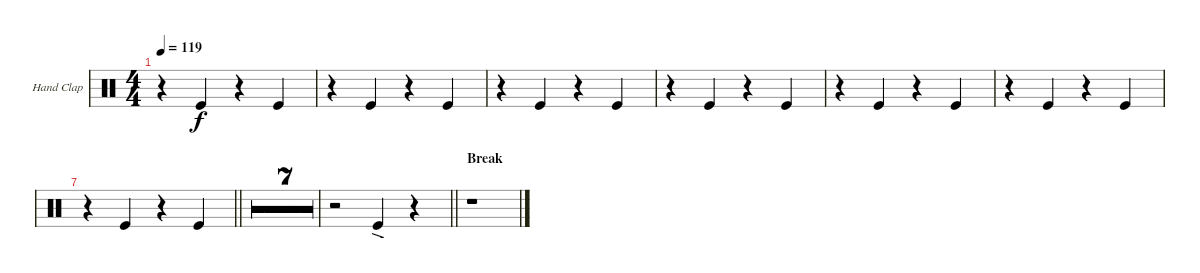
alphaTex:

\defaultSystemsLayout 4
\bracketExtendMode groupsimilarinstruments
\useSystemSignSeparator
\multiBarRest
\multiTrackTrackNamePolicy allsystems
\firstSystemTrackNameMode fullname
\firstSystemTrackNameOrientation horizontal
\otherSystemsTrackNameOrientation horizontal
\defaultBarNumberDisplay FirstOfSystem
\track ("Hand Clap" "H-Clap") {multiBarRest instrument percussion}
\staff {score}
\articulation defaults
\ts (4 4)
\tempo 119
\clef neutral
\ks aminor
r.4{dy f} "Kick (hit)".4 r.4 "Kick (hit)".4 |
r.4 "Kick (hit)".4 r.4 "Kick (hit)".4 |
r.4 "Kick (hit)".4 r.4 "Kick (hit)".4 |
r.4 "Kick (hit)".4 r.4 "Kick (hit)".4 |
r.4 "Kick (hit)".4 r.4 "Kick (hit)".4 |
r.4 "Kick (hit)".4 r.4 "Kick (hit)".4 |
\barLineRight lightlight
r.4 "Kick (hit)".4 r.4 "Kick (hit)".4 |
r.1 |
r.1 |
r.1 |
r.1 |
r.1 |
r.1 |
r.1 |
\barLineRight lightlight
r.2 "Kick (hit)"{ac}.4 r.4 |
\section ("" "Break")
r.1
